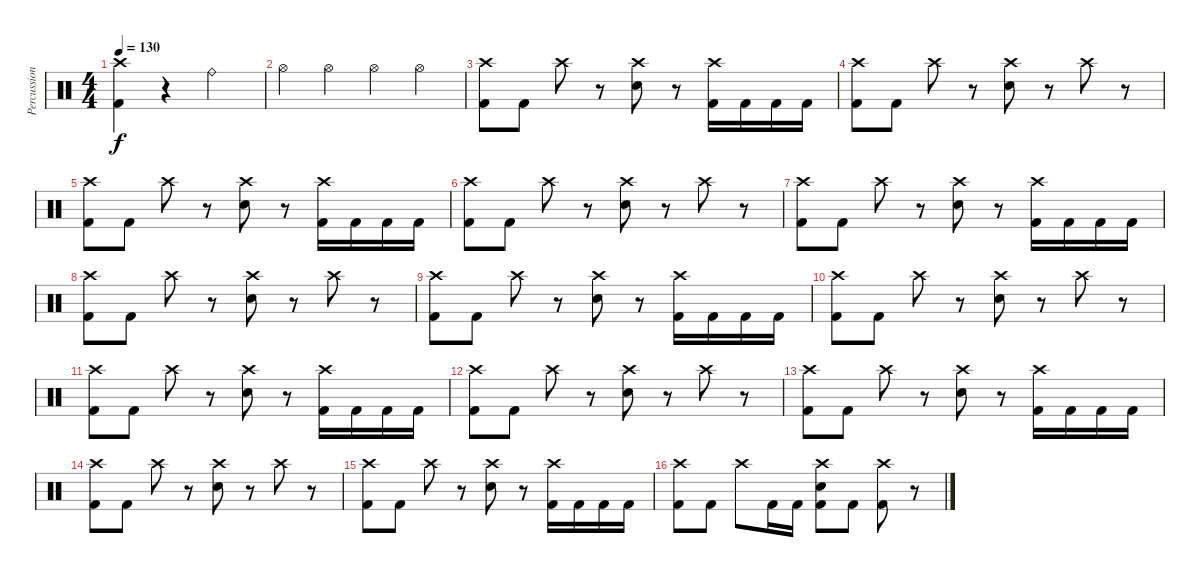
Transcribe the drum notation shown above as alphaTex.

\track ("Percussion" "Percussion") {instrument percussion}
\staff {score}
\articulation defaults
\ts (4 4)
\tempo 130
\clef neutral
\ks c
("Crash high (hit)" "Kick (hit) 2").4{dy f} r.4 "Ride (bell)".2 |
"Hi-Hat (open)".4 "Hi-Hat (open)".4 "Hi-Hat (open)".4 "Hi-Hat (open)".4 |
("Crash high (hit)" "Kick (hit) 2").8 "Kick (hit) 2".8 "Crash high (hit)".8 r.8 ("Crash high (hit)" "Electric Snare (hit)").8 r.8 ("Crash high (hit)" "Kick (hit) 2").16 "Kick (hit) 2".16 "Kick (hit) 2".16 "Kick (hit) 2".16 |
("Crash high (hit)" "Kick (hit) 2").8 "Kick (hit) 2".8 "Crash high (hit)".8 r.8 ("Crash high (hit)" "Electric Snare (hit)").8 r.8 "Crash high (hit)".8 r.8 |
("Crash high (hit)" "Kick (hit) 2").8 "Kick (hit) 2".8 "Crash high (hit)".8 r.8 ("Crash high (hit)" "Electric Snare (hit)").8 r.8 ("Crash high (hit)" "Kick (hit) 2").16 "Kick (hit) 2".16 "Kick (hit) 2".16 "Kick (hit) 2".16 |
("Crash high (hit)" "Kick (hit) 2").8 "Kick (hit) 2".8 "Crash high (hit)".8 r.8 ("Crash high (hit)" "Electric Snare (hit)").8 r.8 "Crash high (hit)".8 r.8 |
("Crash high (hit)" "Kick (hit) 2").8 "Kick (hit) 2".8 "Crash high (hit)".8 r.8 ("Crash high (hit)" "Electric Snare (hit)").8 r.8 ("Crash high (hit)" "Kick (hit) 2").16 "Kick (hit) 2".16 "Kick (hit) 2".16 "Kick (hit) 2".16 |
("Crash high (hit)" "Kick (hit) 2").8 "Kick (hit) 2".8 "Crash high (hit)".8 r.8 ("Crash high (hit)" "Electric Snare (hit)").8 r.8 "Crash high (hit)".8 r.8 |
("Crash high (hit)" "Kick (hit) 2").8 "Kick (hit) 2".8 "Crash high (hit)".8 r.8 ("Crash high (hit)" "Electric Snare (hit)").8 r.8 ("Crash high (hit)" "Kick (hit) 2").16 "Kick (hit) 2".16 "Kick (hit) 2".16 "Kick (hit) 2".16 |
("Crash high (hit)" "Kick (hit) 2").8 "Kick (hit) 2".8 "Crash high (hit)".8 r.8 ("Crash high (hit)" "Electric Snare (hit)").8 r.8 "Crash high (hit)".8 r.8 |
("Crash high (hit)" "Kick (hit) 2").8 "Kick (hit) 2".8 "Crash high (hit)".8 r.8 ("Crash high (hit)" "Electric Snare (hit)").8 r.8 ("Crash high (hit)" "Kick (hit) 2").16 "Kick (hit) 2".16 "Kick (hit) 2".16 "Kick (hit) 2".16 |
("Crash high (hit)" "Kick (hit) 2").8 "Kick (hit) 2".8 "Crash high (hit)".8 r.8 ("Crash high (hit)" "Electric Snare (hit)").8 r.8 "Crash high (hit)".8 r.8 |
("Crash high (hit)" "Kick (hit) 2").8 "Kick (hit) 2".8 "Crash high (hit)".8 r.8 ("Crash high (hit)" "Electric Snare (hit)").8 r.8 ("Crash high (hit)" "Kick (hit) 2").16 "Kick (hit) 2".16 "Kick (hit) 2".16 "Kick (hit) 2".16 |
("Crash high (hit)" "Kick (hit) 2").8 "Kick (hit) 2".8 "Crash high (hit)".8 r.8 ("Crash high (hit)" "Electric Snare (hit)").8 r.8 "Crash high (hit)".8 r.8 |
("Crash high (hit)" "Kick (hit) 2").8 "Kick (hit) 2".8 "Crash high (hit)".8 r.8 ("Crash high (hit)" "Electric Snare (hit)").8 r.8 ("Crash high (hit)" "Kick (hit) 2").16 "Kick (hit) 2".16 "Kick (hit) 2".16 "Kick (hit) 2".16 |
("Crash high (hit)" "Kick (hit) 2").8 "Kick (hit) 2".8 "Crash high (hit)".8 "Kick (hit) 2".16 "Kick (hit) 2".16 ("Crash high (hit)" "Electric Snare (hit)" "Kick (hit) 2").8 "Kick (hit) 2".8 ("Crash high (hit)" "Kick (hit) 2").8 r.8
